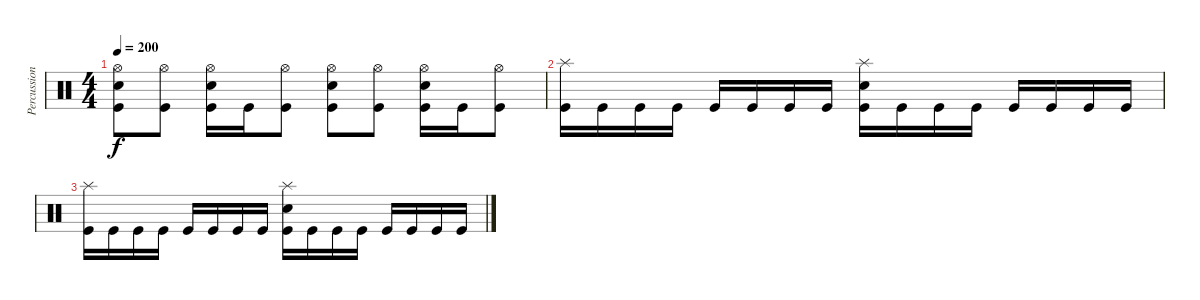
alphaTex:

\track ("Percussions" "Percussion") {instrument percussion}
\staff {score}
\articulation defaults
\ts (4 4)
\tempo 200
\clef neutral
\ks c
("Hi-Hat (open)" "Electric Snare (hit)" "Kick (hit)").8{dy f} ("Hi-Hat (open)" "Kick (hit)").8 ("Hi-Hat (open)" "Electric Snare (hit)" "Kick (hit)").16 "Kick (hit)".16 ("Hi-Hat (open)" "Kick (hit)").8 ("Hi-Hat (open)" "Electric Snare (hit)" "Kick (hit)").8 ("Hi-Hat (open)" "Kick (hit)").8 ("Hi-Hat (open)" "Electric Snare (hit)" "Kick (hit)").16 "Kick (hit)".16 ("Hi-Hat (open)" "Kick (hit)").8 |
("Splash (hit)" "Kick (hit)").16 "Kick (hit)".16 "Kick (hit)".16 "Kick (hit)".16 "Kick (hit)".16 "Kick (hit)".16 "Kick (hit)".16 "Kick (hit)".16 ("Splash (hit)" "Electric Snare (hit)" "Kick (hit)").16 "Kick (hit)".16 "Kick (hit)".16 "Kick (hit)".16 "Kick (hit)".16 "Kick (hit)".16 "Kick (hit)".16 "Kick (hit)".16 |
("Splash (hit)" "Kick (hit)").16 "Kick (hit)".16 "Kick (hit)".16 "Kick (hit)".16 "Kick (hit)".16 "Kick (hit)".16 "Kick (hit)".16 "Kick (hit)".16 ("Splash (hit)" "Electric Snare (hit)" "Kick (hit)").16 "Kick (hit)".16 "Kick (hit)".16 "Kick (hit)".16 "Kick (hit)".16 "Kick (hit)".16 "Kick (hit)".16 "Kick (hit)".16
